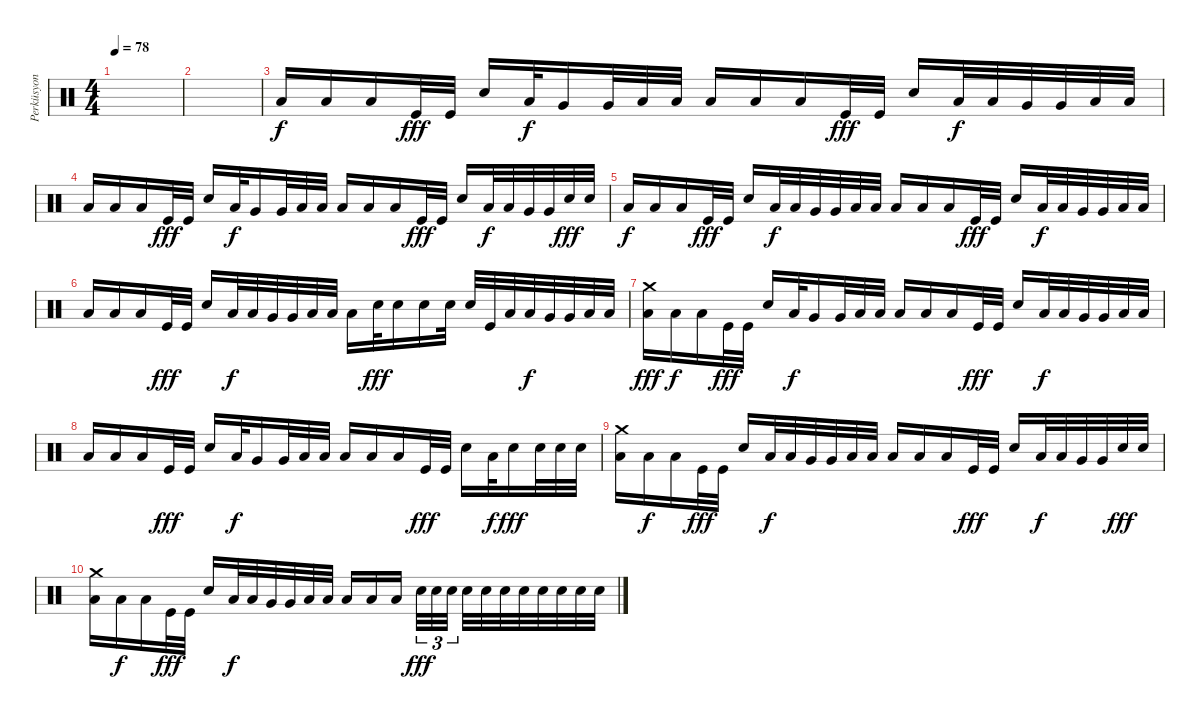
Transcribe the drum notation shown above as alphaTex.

\track ("Perküsyon" "Perküsyon") {instrument percussion}
\staff {score}
\articulation defaults
\ts (4 4)
\tempo 78
\clef neutral
\ks c
|
|
"Low Floor Tom (hit)".16{dy f volume 9} "Low Floor Tom (hit)".16 "Low Floor Tom (hit)".16 "Kick (hit)".32{dy fff} "Kick (hit)".32 "Electric Snare (hit)".16 "Low Tom (hit)".32{dy f} "Very Low Tom (hit)".16 "Very Low Tom (hit)".32 "Low Floor Tom (hit)".32 "Low Floor Tom (hit)".32 "Low Floor Tom (hit)".16 "Low Floor Tom (hit)".16 "Low Floor Tom (hit)".16 "Kick (hit)".32{dy fff} "Kick (hit)".32 "Electric Snare (hit)".16 "Low Tom (hit)".32{dy f} "Low Tom (hit)".32 "Very Low Tom (hit)".32 "Very Low Tom (hit)".32 "Low Floor Tom (hit)".32 "Low Floor Tom (hit)".32 |
"Low Floor Tom (hit)".16 "Low Floor Tom (hit)".16 "Low Floor Tom (hit)".16 "Kick (hit)".32{dy fff} "Kick (hit)".32 "Electric Snare (hit)".16 "Low Tom (hit)".32{dy f} "Very Low Tom (hit)".16 "Very Low Tom (hit)".32 "Low Floor Tom (hit)".32 "Low Floor Tom (hit)".32 "Low Floor Tom (hit)".16 "Low Floor Tom (hit)".16 "Low Floor Tom (hit)".16 "Kick (hit)".32{dy fff} "Kick (hit)".32 "Electric Snare (hit)".16 "Low Tom (hit)".32{dy f} "Low Tom (hit)".32 "Very Low Tom (hit)".32 "Very Low Tom (hit)".32 "Electric Snare (hit)".32{dy fff} "Electric Snare (hit)".32 |
"Low Floor Tom (hit)".16{dy f} "Low Floor Tom (hit)".16 "Low Floor Tom (hit)".16 "Kick (hit)".32{dy fff} "Kick (hit)".32 "Electric Snare (hit)".16 "Low Tom (hit)".32{dy f} "Low Tom (hit)".32 "Very Low Tom (hit)".32 "Very Low Tom (hit)".32 "Low Floor Tom (hit)".32 "Low Floor Tom (hit)".32 "Low Floor Tom (hit)".16 "Low Floor Tom (hit)".16 "Low Floor Tom (hit)".16 "Kick (hit)".32{dy fff} "Kick (hit)".32 "Electric Snare (hit)".16 "Low Tom (hit)".32{dy f} "Low Tom (hit)".32 "Very Low Tom (hit)".32 "Very Low Tom (hit)".32 "Low Floor Tom (hit)".32 "Low Floor Tom (hit)".32 |
"Low Floor Tom (hit)".16 "Low Floor Tom (hit)".16 "Low Floor Tom (hit)".16 "Kick (hit)".32{dy fff} "Kick (hit)".32 "Electric Snare (hit)".16 "Low Tom (hit)".32{dy f} "Low Tom (hit)".32 "Very Low Tom (hit)".32 "Very Low Tom (hit)".32 "Low Floor Tom (hit)".32 "Low Floor Tom (hit)".32 "Low Floor Tom (hit)".16 "Electric Snare (hit)".32{dy fff} "Electric Snare (hit)".16 "Electric Snare (hit)".16 "Electric Snare (hit)".32 "Electric Snare (hit)".32 "Kick (hit)".32 "Low Tom (hit)".32 "Low Tom (hit)".32{dy f} "Very Low Tom (hit)".32 "Very Low Tom (hit)".32 "Low Floor Tom (hit)".32 "Low Floor Tom (hit)".32 |
("Crash medium (hit)" "Low Floor Tom (hit)").16{dy fff} "Low Floor Tom (hit)".16{dy f} "Low Floor Tom (hit)".16 "Kick (hit)".32{dy fff} "Kick (hit)".32 "Electric Snare (hit)".16 "Low Tom (hit)".32{dy f} "Very Low Tom (hit)".16 "Very Low Tom (hit)".32 "Low Floor Tom (hit)".32 "Low Floor Tom (hit)".32 "Low Floor Tom (hit)".16 "Low Floor Tom (hit)".16 "Low Floor Tom (hit)".16 "Kick (hit)".32{dy fff} "Kick (hit)".32 "Electric Snare (hit)".16 "Low Tom (hit)".32{dy f} "Low Tom (hit)".32 "Very Low Tom (hit)".32 "Very Low Tom (hit)".32 "Low Floor Tom (hit)".32 "Low Floor Tom (hit)".32 |
"Low Floor Tom (hit)".16 "Low Floor Tom (hit)".16 "Low Floor Tom (hit)".16 "Kick (hit)".32{dy fff} "Kick (hit)".32 "Electric Snare (hit)".16 "Low Tom (hit)".32{dy f} "Very Low Tom (hit)".16 "Very Low Tom (hit)".32 "Low Floor Tom (hit)".32 "Low Floor Tom (hit)".32 "Low Floor Tom (hit)".16 "Low Floor Tom (hit)".16 "Low Floor Tom (hit)".16 "Kick (hit)".32{dy fff} "Kick (hit)".32 "Electric Snare (hit)".16 "Low Tom (hit)".32{dy f} "Electric Snare (hit)".16{dy fff} "Electric Snare (hit)".32 "Electric Snare (hit)".32 "Electric Snare (hit)".32 |
("Crash medium (hit)" "Low Floor Tom (hit)").16 "Low Floor Tom (hit)".16{dy f} "Low Floor Tom (hit)".16 "Kick (hit)".32{dy fff} "Kick (hit)".32 "Electric Snare (hit)".16 "Low Tom (hit)".32{dy f} "Low Tom (hit)".32 "Very Low Tom (hit)".32 "Very Low Tom (hit)".32 "Low Floor Tom (hit)".32 "Low Floor Tom (hit)".32 "Low Floor Tom (hit)".16 "Low Floor Tom (hit)".16 "Low Floor Tom (hit)".16 "Kick (hit)".32{dy fff} "Kick (hit)".32 "Electric Snare (hit)".16 "Low Tom (hit)".32{dy f} "Low Tom (hit)".32 "Very Low Tom (hit)".32 "Very Low Tom (hit)".32 "Electric Snare (hit)".32{dy fff} "Electric Snare (hit)".32 |
("Crash medium (hit)" "Low Floor Tom (hit)").16 "Low Floor Tom (hit)".16{dy f} "Low Floor Tom (hit)".16 "Kick (hit)".32{dy fff} "Kick (hit)".32 "Electric Snare (hit)".16 "Low Tom (hit)".32{dy f} "Low Tom (hit)".32 "Very Low Tom (hit)".32 "Very Low Tom (hit)".32 "Low Floor Tom (hit)".32 "Low Floor Tom (hit)".32 "Low Floor Tom (hit)".16{volume 12} "Low Floor Tom (hit)".16 "Low Floor Tom (hit)".16{beam splitsecondary} "Electric Snare (hit)".32{tu (3 2) dy fff} "Electric Snare (hit)".32{tu (3 2)} "Electric Snare (hit)".32{tu (3 2)} "Electric Snare (hit)".32 "Electric Snare (hit)".32 "Electric Snare (hit)".32 "Electric Snare (hit)".32 "Electric Snare (hit)".32 "Electric Snare (hit)".32 "Electric Snare (hit)".32 "Electric Snare (hit)".32
